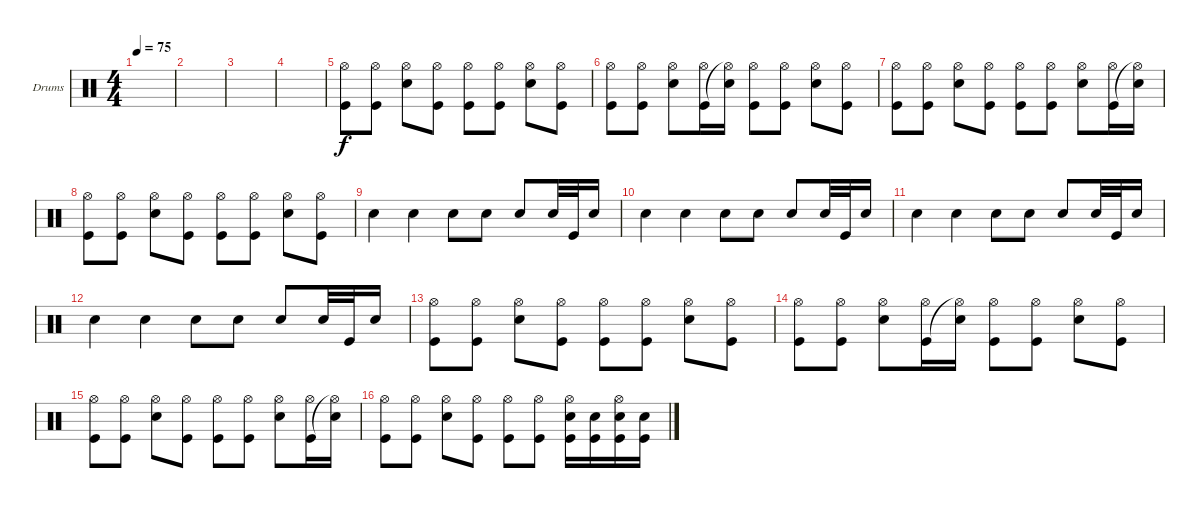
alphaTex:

\defaultSystemsLayout 4
\bracketExtendMode groupsimilarinstruments
\firstSystemTrackNameOrientation horizontal
\otherSystemsTrackNameOrientation horizontal
\track ("Drumkit" "Drums") {solo instrument percussion}
\staff {score}
\articulation defaults
\ts (4 4)
\tempo 75
\clef neutral
\scale
0.472222
\ks c
|
\scale
0.263889 |
\scale
0.263889 |
\scale
0.333333 |
\scale
0.333333 ("Hi-Hat (open)" "Kick (hit)").8 ("Hi-Hat (open)" "Kick (hit)").8 ("Hi-Hat (open)" "Snare (hit) 2").8 ("Hi-Hat (open)" "Kick (hit)").8 ("Hi-Hat (open)" "Kick (hit)").8 ("Hi-Hat (open)" "Kick (hit)").8 ("Hi-Hat (open)" "Snare (hit) 2").8 ("Hi-Hat (open)" "Kick (hit)").8 |
("Hi-Hat (open)" "Kick (hit)").8 ("Hi-Hat (open)" "Kick (hit)").8 ("Hi-Hat (open)" "Snare (hit) 2").8 ("Kick (hit)" "Hi-Hat (open)").16 ("Hi-Hat (open)"{t} "Snare (hit) 2").16 ("Hi-Hat (open)" "Kick (hit)").8 ("Hi-Hat (open)" "Kick (hit)").8 ("Hi-Hat (open)" "Snare (hit) 2").8 ("Kick (hit)" "Hi-Hat (open)").8 |
("Hi-Hat (open)" "Kick (hit)").8 ("Hi-Hat (open)" "Kick (hit)").8 ("Hi-Hat (open)" "Snare (hit) 2").8 ("Hi-Hat (open)" "Kick (hit)").8 ("Hi-Hat (open)" "Kick (hit)").8 ("Hi-Hat (open)" "Kick (hit)").8 ("Hi-Hat (open)" "Snare (hit) 2").8 ("Hi-Hat (open)" "Kick (hit)").16 ("Snare (hit) 2" "Hi-Hat (open)"{t}).16 |
("Hi-Hat (open)" "Kick (hit)").8 ("Hi-Hat (open)" "Kick (hit)").8 ("Hi-Hat (open)" "Snare (hit) 2").8 ("Hi-Hat (open)" "Kick (hit)").8 ("Hi-Hat (open)" "Kick (hit)").8 ("Hi-Hat (open)" "Kick (hit)").8 ("Hi-Hat (open)" "Snare (hit) 2").8 ("Hi-Hat (open)" "Kick (hit)").8 |
"Snare (hit) 2".4 "Snare (hit) 2".4 "Snare (hit) 2".8 "Snare (hit) 2".8 "Snare (hit) 2".8 "Snare (hit) 2".32 "Kick (hit)".32 "Snare (hit) 2".16 |
"Snare (hit) 2".4 "Snare (hit) 2".4 "Snare (hit) 2".8 "Snare (hit) 2".8 "Snare (hit) 2".8 "Snare (hit) 2".32 "Kick (hit)".32 "Snare (hit) 2".16 |
"Snare (hit) 2".4 "Snare (hit) 2".4 "Snare (hit) 2".8 "Snare (hit) 2".8 "Snare (hit) 2".8 "Snare (hit) 2".32 "Kick (hit)".32 "Snare (hit) 2".16 |
"Snare (hit) 2".4 "Snare (hit) 2".4 "Snare (hit) 2".8 "Snare (hit) 2".8 "Snare (hit) 2".8 "Snare (hit) 2".32 "Kick (hit)".32 "Snare (hit) 2".16 |
("Hi-Hat (open)" "Kick (hit)").8 ("Hi-Hat (open)" "Kick (hit)").8 ("Hi-Hat (open)" "Snare (hit) 2").8 ("Hi-Hat (open)" "Kick (hit)").8 ("Hi-Hat (open)" "Kick (hit)").8 ("Hi-Hat (open)" "Kick (hit)").8 ("Hi-Hat (open)" "Snare (hit) 2").8 ("Hi-Hat (open)" "Kick (hit)").8 |
("Hi-Hat (open)" "Kick (hit)").8 ("Hi-Hat (open)" "Kick (hit)").8 ("Hi-Hat (open)" "Snare (hit) 2").8 ("Kick (hit)" "Hi-Hat (open)").16 ("Hi-Hat (open)"{t} "Snare (hit) 2").16 ("Hi-Hat (open)" "Kick (hit)").8 ("Hi-Hat (open)" "Kick (hit)").8 ("Hi-Hat (open)" "Snare (hit) 2").8 ("Kick (hit)" "Hi-Hat (open)").8 |
("Hi-Hat (open)" "Kick (hit)").8 ("Hi-Hat (open)" "Kick (hit)").8 ("Hi-Hat (open)" "Snare (hit) 2").8 ("Hi-Hat (open)" "Kick (hit)").8 ("Hi-Hat (open)" "Kick (hit)").8 ("Hi-Hat (open)" "Kick (hit)").8 ("Hi-Hat (open)" "Snare (hit) 2").8 ("Hi-Hat (open)" "Kick (hit)").16 ("Snare (hit) 2" "Hi-Hat (open)"{t}).16 |
("Hi-Hat (open)" "Kick (hit)").8 ("Hi-Hat (open)" "Kick (hit)").8 ("Hi-Hat (open)" "Snare (hit) 2").8 ("Hi-Hat (open)" "Kick (hit)").8 ("Hi-Hat (open)" "Kick (hit)").8 ("Hi-Hat (open)" "Kick (hit)").8 ("Hi-Hat (open)" "Snare (hit) 2" "Kick (hit)").16{dy f} ("Kick (hit)" "Snare (hit) 2").16 ("Snare (hit) 2" "Kick (hit)" "Hi-Hat (open)").16 ("Snare (hit) 2" "Kick (hit)").16
